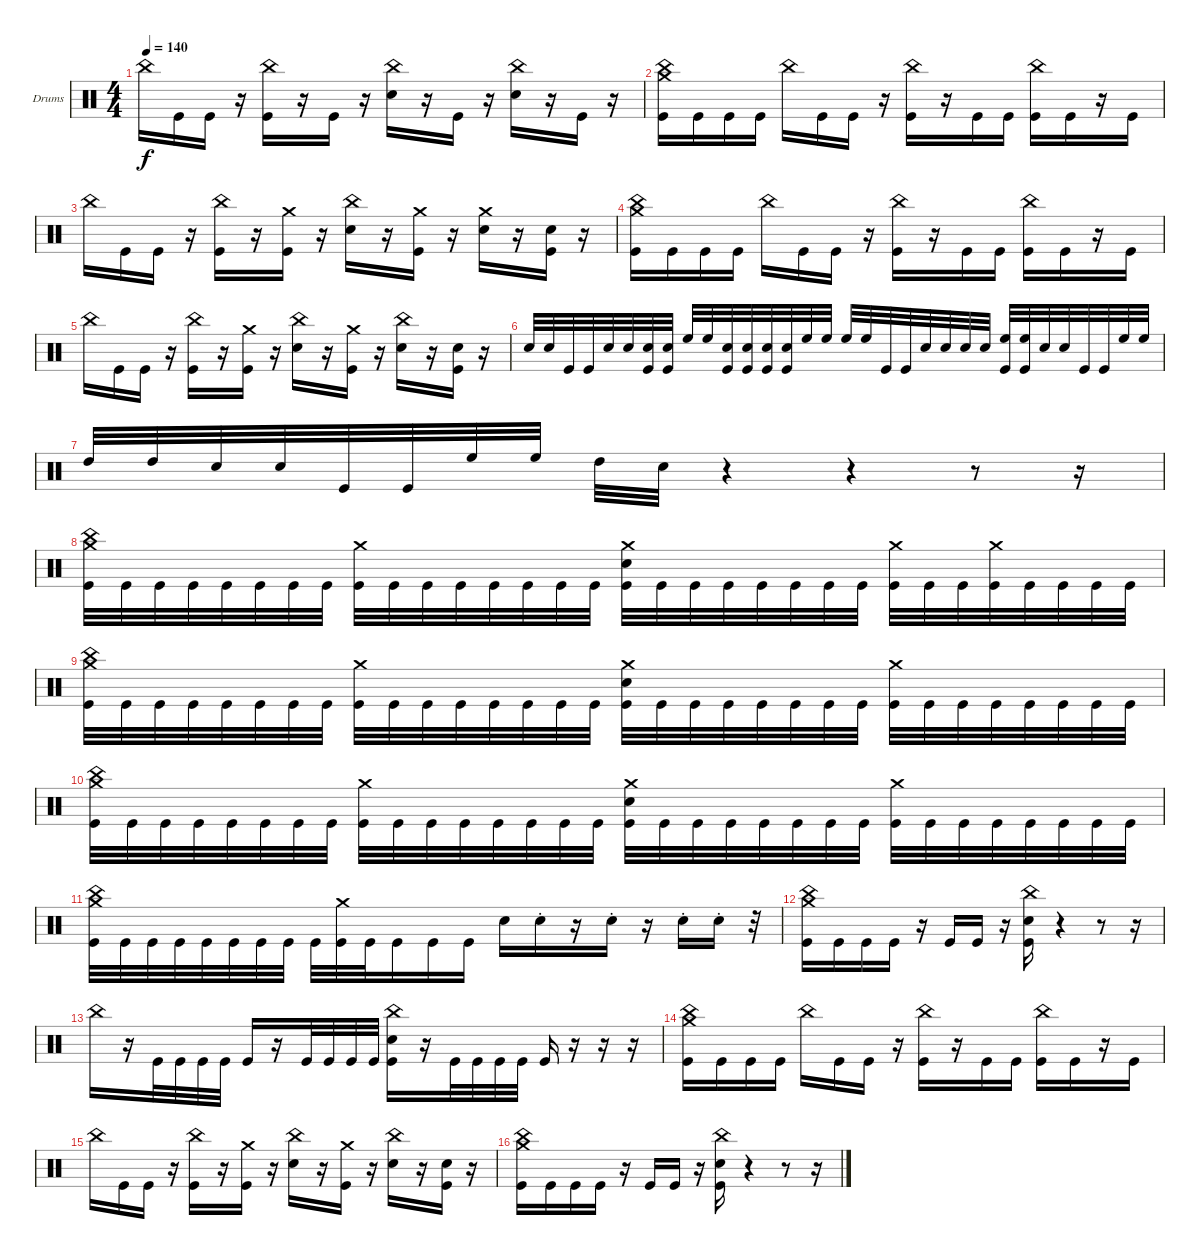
\defaultSystemsLayout 4
\bracketExtendMode groupsimilarinstruments
\firstSystemTrackNameOrientation horizontal
\otherSystemsTrackNameOrientation horizontal
\track ("Drumkit" "Drums") {instrument percussion}
\staff {score}
\articulation defaults
\ts (4 4)
\tempo 140
\clef neutral
\ks c "China (hit)".16{dy f} "Kick (hit)".16 "Kick (hit)".16
r.16 ("Kick (hit)" "China (hit)").16 r.16 "Kick (hit)".16 r.16 ("Snare (hit) 2" "China (hit)").16 r.16 "Kick (hit)".16 r.16 ("Snare (hit) 2" "China (hit)").16 r.16 "Kick (hit)".16 r.16 |
("Kick (hit)" "Crash medium (hit)" "China (hit)").16 "Kick (hit)".16 "Kick (hit)".16 "Kick (hit)".16 "China (hit)".16 "Kick (hit)".16 "Kick (hit)".16 r.16 ("Kick (hit)" "China (hit)").16 r.16 "Kick (hit)".16 "Kick (hit)".16 ("Kick (hit)" "China (hit)").16 "Kick (hit)".16 r.16 "Kick (hit)".16 |
"China (hit)".16 "Kick (hit)".16 "Kick (hit)".16 r.16 ("Kick (hit)" "China (hit)").16 r.16 ("Kick (hit)" "Crash medium (hit)").16 r.16 ("Snare (hit) 2" "China (hit)").16 r.16 ("Kick (hit)" "Crash medium (hit)").16 r.16 ("Snare (hit) 2" "Crash medium (hit)").16 r.16 ("Kick (hit)" "Snare (hit) 2").16 r.16 |
("Kick (hit)" "Crash medium (hit)" "China (hit)").16 "Kick (hit)".16 "Kick (hit)".16 "Kick (hit)".16 "China (hit)".16 "Kick (hit)".16 "Kick (hit)".16 r.16 ("Kick (hit)" "China (hit)").16 r.16 "Kick (hit)".16 "Kick (hit)".16 ("Kick (hit)" "China (hit)").16 "Kick (hit)".16 r.16 "Kick (hit)".16 |
"China (hit)".16 "Kick (hit)".16 "Kick (hit)".16 r.16 ("Kick (hit)" "China (hit)").16 r.16 ("Kick (hit)" "Crash medium (hit)").16 r.16 ("Snare (hit) 2" "China (hit)").16 r.16 ("Kick (hit)" "Crash medium (hit)").16 r.16 ("Snare (hit) 2" "China (hit)").16 r.16 ("Kick (hit)" "Snare (hit) 2").16 r.16 |
"Snare (hit) 2".32 "Snare (hit) 2".32 "Kick (hit)".32 "Kick (hit)".32 "Snare (hit) 2".32 "Snare (hit) 2".32 ("Snare (hit) 2" "Kick (hit)").32 ("Snare (hit) 2" "Kick (hit)").32 "High Floor Tom (hit)".32 "High Floor Tom (hit)".32 ("Snare (hit) 2" "Kick (hit)").32 ("Snare (hit) 2" "Kick (hit)").32 ("Snare (hit) 2" "Kick (hit)").32 ("Snare (hit) 2" "Kick (hit)").32 "High Floor Tom (hit)".32 "High Floor Tom (hit)".32 "High Floor Tom (hit)".32 "High Floor Tom (hit)".32 "Kick (hit)".32 "Kick (hit)".32 "Snare (hit) 2".32 "Snare (hit) 2".32 "Snare (hit) 2".32 "Snare (hit) 2".32 ("High Floor Tom (hit)" "Kick (hit)").32 ("High Floor Tom (hit)" "Kick (hit)").32 "Snare (hit) 2".32 "Snare (hit) 2".32 "Kick (hit)".32 "Kick (hit)".32 "High Floor Tom (hit)".32 "High Floor Tom (hit)".32 |
"High Tom (hit)".32 "High Tom (hit)".32 "Snare (hit) 2".32 "Snare (hit) 2".32 "Kick (hit)".32 "Kick (hit)".32 "High Floor Tom (hit)".32 "High Floor Tom (hit)".32 "High Tom (hit)".32 "Snare (hit) 2".32 r.4 r.4 r.8 r.16 |
("Crash medium (hit)" "China (hit)" "Kick (hit)").32 "Kick (hit)".32 "Kick (hit)".32 "Kick (hit)".32 "Kick (hit)".32 "Kick (hit)".32 "Kick (hit)".32 "Kick (hit)".32 ("Kick (hit)" "Crash medium (hit)").32 "Kick (hit)".32 "Kick (hit)".32 "Kick (hit)".32 "Kick (hit)".32 "Kick (hit)".32 "Kick (hit)".32 "Kick (hit)".32 ("Kick (hit)" "Crash medium (hit)" "Snare (hit) 2").32 "Kick (hit)".32 "Kick (hit)".32 "Kick (hit)".32 "Kick (hit)".32 "Kick (hit)".32 "Kick (hit)".32 "Kick (hit)".32 ("Kick (hit)" "Crash medium (hit)").32 "Kick (hit)".32 "Kick (hit)".32 ("Kick (hit)" "Crash medium (hit)").32 "Kick (hit)".32 "Kick (hit)".32 "Kick (hit)".32 "Kick (hit)".32 |
("Crash medium (hit)" "China (hit)" "Kick (hit)").32 "Kick (hit)".32 "Kick (hit)".32 "Kick (hit)".32 "Kick (hit)".32 "Kick (hit)".32 "Kick (hit)".32 "Kick (hit)".32 ("Kick (hit)" "Crash medium (hit)").32 "Kick (hit)".32 "Kick (hit)".32 "Kick (hit)".32 "Kick (hit)".32 "Kick (hit)".32 "Kick (hit)".32 "Kick (hit)".32 ("Kick (hit)" "Crash medium (hit)" "Snare (hit) 2").32 "Kick (hit)".32 "Kick (hit)".32 "Kick (hit)".32 "Kick (hit)".32 "Kick (hit)".32 "Kick (hit)".32 "Kick (hit)".32 ("Kick (hit)" "Crash medium (hit)").32 "Kick (hit)".32 "Kick (hit)".32 "Kick (hit)".32 "Kick (hit)".32 "Kick (hit)".32 "Kick (hit)".32 "Kick (hit)".32 |
("Crash medium (hit)" "China (hit)" "Kick (hit)").32 "Kick (hit)".32 "Kick (hit)".32 "Kick (hit)".32 "Kick (hit)".32 "Kick (hit)".32 "Kick (hit)".32 "Kick (hit)".32 ("Kick (hit)" "Crash medium (hit)").32 "Kick (hit)".32 "Kick (hit)".32 "Kick (hit)".32 "Kick (hit)".32 "Kick (hit)".32 "Kick (hit)".32 "Kick (hit)".32 ("Kick (hit)" "Crash medium (hit)" "Snare (hit) 2").32 "Kick (hit)".32 "Kick (hit)".32 "Kick (hit)".32 "Kick (hit)".32 "Kick (hit)".32 "Kick (hit)".32 "Kick (hit)".32 ("Kick (hit)" "Crash medium (hit)").32 "Kick (hit)".32 "Kick (hit)".32 "Kick (hit)".32 "Kick (hit)".32 "Kick (hit)".32 "Kick (hit)".32 "Kick (hit)".32 |
("Crash medium (hit)" "China (hit)" "Kick (hit)").32 "Kick (hit)".32 "Kick (hit)".32 "Kick (hit)".32 "Kick (hit)".32 "Kick (hit)".32 "Kick (hit)".32 "Kick (hit)".32 "Kick (hit)".32 ("Kick (hit)" "Crash medium (hit)").32 "Kick (hit)".32 "Kick (hit)".16 "Kick (hit)".16 "Kick (hit)".16 "Snare (hit) 2".16 "Snare (hit) 2"{st}.16 r.16 "Snare (hit) 2"{st}.16 r.16 "Snare (hit) 2"{st}.16 "Snare (hit) 2"{st}.16 r.32 |
("Kick (hit)" "China (hit)" "Crash medium (hit)").16 "Kick (hit)".16 "Kick (hit)".16 "Kick (hit)".16 r.16 "Kick (hit)".16 "Kick (hit)".16 r.16 ("Kick (hit)" "Snare (hit) 2" "China (hit)").16 r.4 r.8 r.16 |
"China (hit)".16 r.16 "Kick (hit)".32 "Kick (hit)".32 "Kick (hit)".32 "Kick (hit)".32 "Kick (hit)".16 r.16 "Kick (hit)".32 "Kick (hit)".32 "Kick (hit)".32 "Kick (hit)".32 ("Kick (hit)" "Snare (hit) 2" "China (hit)").16 r.16 "Kick (hit)".32 "Kick (hit)".32 "Kick (hit)".32 "Kick (hit)".32 "Kick (hit)".16 r.16 r.16 r.16 |
("Kick (hit)" "Crash medium (hit)" "China (hit)").16 "Kick (hit)".16 "Kick (hit)".16 "Kick (hit)".16 "China (hit)".16 "Kick (hit)".16 "Kick (hit)".16 r.16 ("Kick (hit)" "China (hit)").16 r.16 "Kick (hit)".16 "Kick (hit)".16 ("Kick (hit)" "China (hit)").16 "Kick (hit)".16 r.16 "Kick (hit)".16 |
"China (hit)".16 "Kick (hit)".16 "Kick (hit)".16 r.16 ("Kick (hit)" "China (hit)").16 r.16 ("Kick (hit)" "Crash medium (hit)").16 r.16 ("Snare (hit) 2" "China (hit)").16 r.16 ("Kick (hit)" "Crash medium (hit)").16 r.16 ("Snare (hit) 2" "China (hit)").16 r.16 ("Kick (hit)" "Snare (hit) 2").16 r.16 |
("Kick (hit)" "China (hit)" "Crash medium (hit)").16 "Kick (hit)".16 "Kick (hit)".16 "Kick (hit)".16 r.16 "Kick (hit)".16 "Kick (hit)".16 r.16 ("Kick (hit)" "Snare (hit) 2" "China (hit)").16 r.4 r.8 r.16
